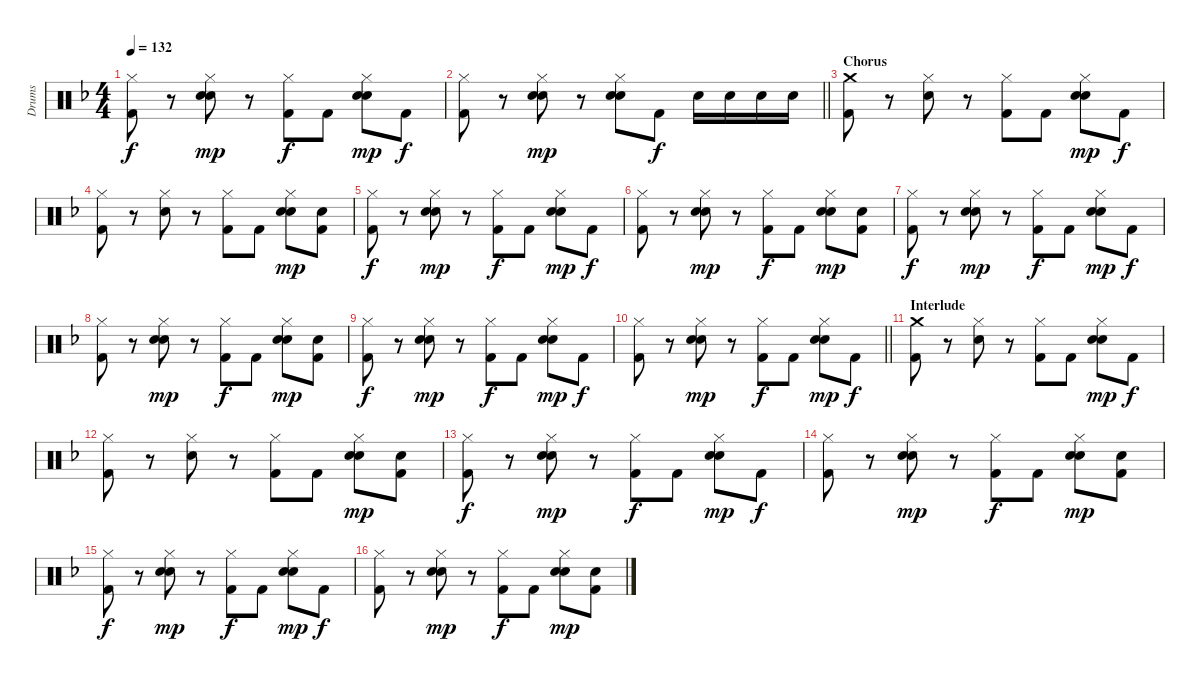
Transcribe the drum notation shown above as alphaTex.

\track ("Drums" "Drums") {instrument percussion}
\staff {score}
\articulation defaults
\ts (4 4)
\tempo 132
\clef neutral
\ks f
("Hi-Hat (closed)" "Kick (hit) 2").8{dy f} r.8 ("Hi-Hat (closed)" "Hand Clap (hit)" "Snare (hit) 2").8{dy mp} r.8 ("Hi-Hat (closed)" "Kick (hit) 2").8{dy f} "Kick (hit) 2".8 ("Hi-Hat (closed)" "Hand Clap (hit)" "Snare (hit) 2").8{dy mp} "Kick (hit) 2".8{dy f} |
\barLineRight lightlight
("Hi-Hat (closed)" "Kick (hit) 2").8 r.8 ("Hi-Hat (closed)" "Hand Clap (hit)" "Snare (hit) 2").8{dy mp} r.8 ("Hi-Hat (closed)" "Hand Clap (hit)" "Snare (hit) 2").8 "Kick (hit) 2".8{dy f} "Snare (hit) 2".16 "Snare (hit) 2".16 "Snare (hit) 2".16 "Snare (hit) 2".16 |
\section ("" "Chorus")
("Crash medium (hit)" "Kick (hit) 2").8 r.8 ("Hi-Hat (closed)" "Snare (hit) 2").8 r.8 ("Hi-Hat (closed)" "Kick (hit) 2").8 "Kick (hit) 2".8 ("Hi-Hat (closed)" "Hand Clap (hit)" "Snare (hit) 2").8{dy mp} "Kick (hit) 2".8{dy f} |
("Hi-Hat (closed)" "Kick (hit) 2").8 r.8 ("Hi-Hat (closed)" "Snare (hit) 2").8 r.8 ("Hi-Hat (closed)" "Kick (hit) 2").8 "Kick (hit) 2".8 ("Hi-Hat (closed)" "Hand Clap (hit)" "Snare (hit) 2").8{dy mp} ("Hand Clap (hit)" "Kick (hit) 2").8 |
("Hi-Hat (closed)" "Kick (hit) 2").8{dy f} r.8 ("Hi-Hat (closed)" "Hand Clap (hit)" "Snare (hit) 2").8{dy mp} r.8 ("Hi-Hat (closed)" "Kick (hit) 2").8{dy f} "Kick (hit) 2".8 ("Hi-Hat (closed)" "Hand Clap (hit)" "Snare (hit) 2").8{dy mp} "Kick (hit) 2".8{dy f} |
("Hi-Hat (closed)" "Kick (hit) 2").8 r.8 ("Hi-Hat (closed)" "Hand Clap (hit)" "Snare (hit) 2").8{dy mp} r.8 ("Hi-Hat (closed)" "Kick (hit) 2").8{dy f} "Kick (hit) 2".8 ("Hi-Hat (closed)" "Hand Clap (hit)" "Snare (hit) 2").8{dy mp} ("Hand Clap (hit)" "Kick (hit) 2").8 |
("Hi-Hat (closed)" "Kick (hit) 2").8{dy f} r.8 ("Hi-Hat (closed)" "Hand Clap (hit)" "Snare (hit) 2").8{dy mp} r.8 ("Hi-Hat (closed)" "Kick (hit) 2").8{dy f} "Kick (hit) 2".8 ("Hi-Hat (closed)" "Hand Clap (hit)" "Snare (hit) 2").8{dy mp} "Kick (hit) 2".8{dy f} |
("Hi-Hat (closed)" "Kick (hit) 2").8 r.8 ("Hi-Hat (closed)" "Hand Clap (hit)" "Snare (hit) 2").8{dy mp} r.8 ("Hi-Hat (closed)" "Kick (hit) 2").8{dy f} "Kick (hit) 2".8 ("Hi-Hat (closed)" "Hand Clap (hit)" "Snare (hit) 2").8{dy mp} ("Hand Clap (hit)" "Kick (hit) 2").8 |
("Hi-Hat (closed)" "Kick (hit) 2").8{dy f} r.8 ("Hi-Hat (closed)" "Hand Clap (hit)" "Snare (hit) 2").8{dy mp} r.8 ("Hi-Hat (closed)" "Kick (hit) 2").8{dy f} "Kick (hit) 2".8 ("Hi-Hat (closed)" "Hand Clap (hit)" "Snare (hit) 2").8{dy mp} "Kick (hit) 2".8{dy f} |
\barLineRight lightlight
("Hi-Hat (closed)" "Kick (hit) 2").8 r.8 ("Hi-Hat (closed)" "Hand Clap (hit)" "Snare (hit) 2").8{dy mp} r.8 ("Hi-Hat (closed)" "Kick (hit) 2").8{dy f} "Kick (hit) 2".8 ("Hi-Hat (closed)" "Hand Clap (hit)" "Snare (hit) 2").8{dy mp} "Kick (hit) 2".8{dy f} |
\section ("" "Interlude")
("Crash medium (hit)" "Kick (hit) 2").8 r.8 ("Hi-Hat (closed)" "Snare (hit) 2").8 r.8 ("Hi-Hat (closed)" "Kick (hit) 2").8 "Kick (hit) 2".8 ("Hi-Hat (closed)" "Hand Clap (hit)" "Snare (hit) 2").8{dy mp} "Kick (hit) 2".8{dy f} |
("Hi-Hat (closed)" "Kick (hit) 2").8 r.8 ("Hi-Hat (closed)" "Snare (hit) 2").8 r.8 ("Hi-Hat (closed)" "Kick (hit) 2").8 "Kick (hit) 2".8 ("Hi-Hat (closed)" "Hand Clap (hit)" "Snare (hit) 2").8{dy mp} ("Hand Clap (hit)" "Kick (hit) 2").8 |
("Hi-Hat (closed)" "Kick (hit) 2").8{dy f} r.8 ("Hi-Hat (closed)" "Hand Clap (hit)" "Snare (hit) 2").8{dy mp} r.8 ("Hi-Hat (closed)" "Kick (hit) 2").8{dy f} "Kick (hit) 2".8 ("Hi-Hat (closed)" "Hand Clap (hit)" "Snare (hit) 2").8{dy mp} "Kick (hit) 2".8{dy f} |
("Hi-Hat (closed)" "Kick (hit) 2").8 r.8 ("Hi-Hat (closed)" "Hand Clap (hit)" "Snare (hit) 2").8{dy mp} r.8 ("Hi-Hat (closed)" "Kick (hit) 2").8{dy f} "Kick (hit) 2".8 ("Hi-Hat (closed)" "Hand Clap (hit)" "Snare (hit) 2").8{dy mp} ("Hand Clap (hit)" "Kick (hit) 2").8 |
("Hi-Hat (closed)" "Kick (hit) 2").8{dy f} r.8 ("Hi-Hat (closed)" "Hand Clap (hit)" "Snare (hit) 2").8{dy mp} r.8 ("Hi-Hat (closed)" "Kick (hit) 2").8{dy f} "Kick (hit) 2".8 ("Hi-Hat (closed)" "Hand Clap (hit)" "Snare (hit) 2").8{dy mp} "Kick (hit) 2".8{dy f} |
("Hi-Hat (closed)" "Kick (hit) 2").8 r.8 ("Hi-Hat (closed)" "Hand Clap (hit)" "Snare (hit) 2").8{dy mp} r.8 ("Hi-Hat (closed)" "Kick (hit) 2").8{dy f} "Kick (hit) 2".8 ("Hi-Hat (closed)" "Hand Clap (hit)" "Snare (hit) 2").8{dy mp} ("Hand Clap (hit)" "Kick (hit) 2").8
